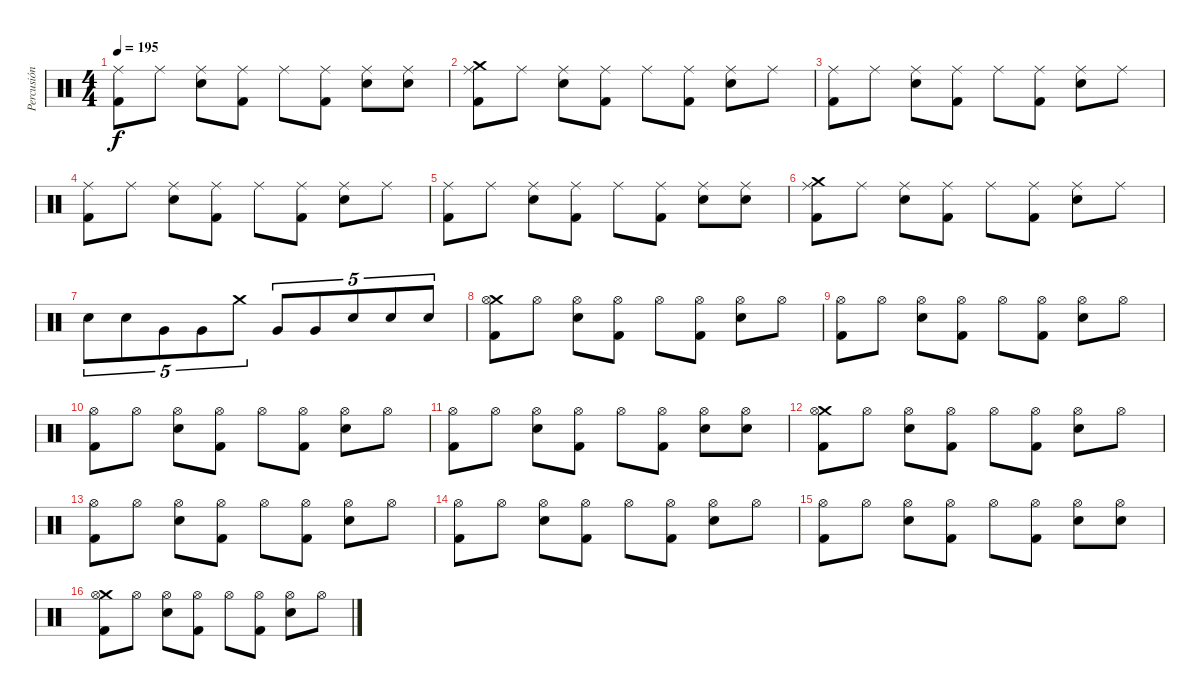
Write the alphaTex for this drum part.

\track ("Percusión" "Percusión") {instrument percussion}
\staff {score}
\articulation defaults
\ts (4 4)
\tempo 195
\clef neutral
\ks c
("Ride (middle)" "Kick (hit) 2").8{dy f} "Ride (middle)".8 ("Ride (middle)" "Snare (hit) 2").8 ("Ride (middle)" "Kick (hit) 2").8 "Ride (middle)".8 ("Ride (middle)" "Kick (hit) 2").8 ("Ride (middle)" "Snare (hit) 2").8 ("Ride (middle)" "Snare (hit) 2").8 |
("Crash medium (hit)" "Ride (middle)" "Kick (hit) 2").8 "Ride (middle)".8 ("Ride (middle)" "Snare (hit) 2").8 ("Ride (middle)" "Kick (hit) 2").8 "Ride (middle)".8 ("Ride (middle)" "Kick (hit) 2").8 ("Ride (middle)" "Snare (hit) 2").8 "Ride (middle)".8 |
("Ride (middle)" "Kick (hit) 2").8 "Ride (middle)".8 ("Ride (middle)" "Snare (hit) 2").8 ("Ride (middle)" "Kick (hit) 2").8 "Ride (middle)".8 ("Ride (middle)" "Kick (hit) 2").8 ("Ride (middle)" "Snare (hit) 2").8 "Ride (middle)".8 |
("Ride (middle)" "Kick (hit) 2").8 "Ride (middle)".8 ("Ride (middle)" "Snare (hit) 2").8 ("Ride (middle)" "Kick (hit) 2").8 "Ride (middle)".8 ("Ride (middle)" "Kick (hit) 2").8 ("Ride (middle)" "Snare (hit) 2").8 "Ride (middle)".8 |
("Ride (middle)" "Kick (hit) 2").8 "Ride (middle)".8 ("Ride (middle)" "Snare (hit) 2").8 ("Ride (middle)" "Kick (hit) 2").8 "Ride (middle)".8 ("Ride (middle)" "Kick (hit) 2").8 ("Ride (middle)" "Snare (hit) 2").8 ("Ride (middle)" "Snare (hit) 2").8 |
("Crash medium (hit)" "Ride (middle)" "Kick (hit) 2").8 "Ride (middle)".8 ("Ride (middle)" "Snare (hit) 2").8 ("Ride (middle)" "Kick (hit) 2").8 "Ride (middle)".8 ("Ride (middle)" "Kick (hit) 2").8 ("Ride (middle)" "Snare (hit) 2").8 "Ride (middle)".8 |
"Snare (hit) 2".8{tu (5 4)} "Snare (hit) 2".8{tu (5 4)} "Very Low Tom (hit)".8{tu (5 4)} "Very Low Tom (hit)".8{tu (5 4)} "Crash medium (hit)".8{tu (5 4)} "Very Low Tom (hit)".8{tu (5 4)} "Very Low Tom (hit)".8{tu (5 4)} "Snare (hit) 2".8{tu (5 4)} "Snare (hit) 2".8{tu (5 4)} "Snare (hit) 2".8{tu (5 4)} |
("Crash medium (hit)" "Hi-Hat (open)" "Kick (hit) 2").8 "Hi-Hat (open)".8 ("Hi-Hat (open)" "Snare (hit) 2").8 ("Hi-Hat (open)" "Kick (hit) 2").8 "Hi-Hat (open)".8 ("Hi-Hat (open)" "Kick (hit) 2").8 ("Hi-Hat (open)" "Snare (hit) 2").8 "Hi-Hat (open)".8 |
("Hi-Hat (open)" "Kick (hit) 2").8 "Hi-Hat (open)".8 ("Hi-Hat (open)" "Snare (hit) 2").8 ("Hi-Hat (open)" "Kick (hit) 2").8 "Hi-Hat (open)".8 ("Hi-Hat (open)" "Kick (hit) 2").8 ("Hi-Hat (open)" "Snare (hit) 2").8 "Hi-Hat (open)".8 |
("Hi-Hat (open)" "Kick (hit) 2").8 "Hi-Hat (open)".8 ("Hi-Hat (open)" "Snare (hit) 2").8 ("Hi-Hat (open)" "Kick (hit) 2").8 "Hi-Hat (open)".8 ("Hi-Hat (open)" "Kick (hit) 2").8 ("Hi-Hat (open)" "Snare (hit) 2").8 "Hi-Hat (open)".8 |
("Hi-Hat (open)" "Kick (hit) 2").8 "Hi-Hat (open)".8 ("Hi-Hat (open)" "Snare (hit) 2").8 ("Hi-Hat (open)" "Kick (hit) 2").8 "Hi-Hat (open)".8 ("Hi-Hat (open)" "Kick (hit) 2").8 ("Hi-Hat (open)" "Snare (hit) 2").8 ("Hi-Hat (open)" "Snare (hit) 2").8 |
("Crash medium (hit)" "Hi-Hat (open)" "Kick (hit) 2").8 "Hi-Hat (open)".8 ("Hi-Hat (open)" "Snare (hit) 2").8 ("Hi-Hat (open)" "Kick (hit) 2").8 "Hi-Hat (open)".8 ("Hi-Hat (open)" "Kick (hit) 2").8 ("Hi-Hat (open)" "Snare (hit) 2").8 "Hi-Hat (open)".8 |
("Hi-Hat (open)" "Kick (hit) 2").8 "Hi-Hat (open)".8 ("Hi-Hat (open)" "Snare (hit) 2").8 ("Hi-Hat (open)" "Kick (hit) 2").8 "Hi-Hat (open)".8 ("Hi-Hat (open)" "Kick (hit) 2").8 ("Hi-Hat (open)" "Snare (hit) 2").8 "Hi-Hat (open)".8 |
("Hi-Hat (open)" "Kick (hit) 2").8 "Hi-Hat (open)".8 ("Hi-Hat (open)" "Snare (hit) 2").8 ("Hi-Hat (open)" "Kick (hit) 2").8 "Hi-Hat (open)".8 ("Hi-Hat (open)" "Kick (hit) 2").8 ("Hi-Hat (open)" "Snare (hit) 2").8 "Hi-Hat (open)".8 |
("Hi-Hat (open)" "Kick (hit) 2").8 "Hi-Hat (open)".8 ("Hi-Hat (open)" "Snare (hit) 2").8 ("Hi-Hat (open)" "Kick (hit) 2").8 "Hi-Hat (open)".8 ("Hi-Hat (open)" "Kick (hit) 2").8 ("Hi-Hat (open)" "Snare (hit) 2").8 ("Hi-Hat (open)" "Snare (hit) 2").8 |
("Crash medium (hit)" "Hi-Hat (open)" "Kick (hit) 2").8 "Hi-Hat (open)".8 ("Hi-Hat (open)" "Snare (hit) 2").8 ("Hi-Hat (open)" "Kick (hit) 2").8 "Hi-Hat (open)".8 ("Hi-Hat (open)" "Kick (hit) 2").8 ("Hi-Hat (open)" "Snare (hit) 2").8 "Hi-Hat (open)".8
